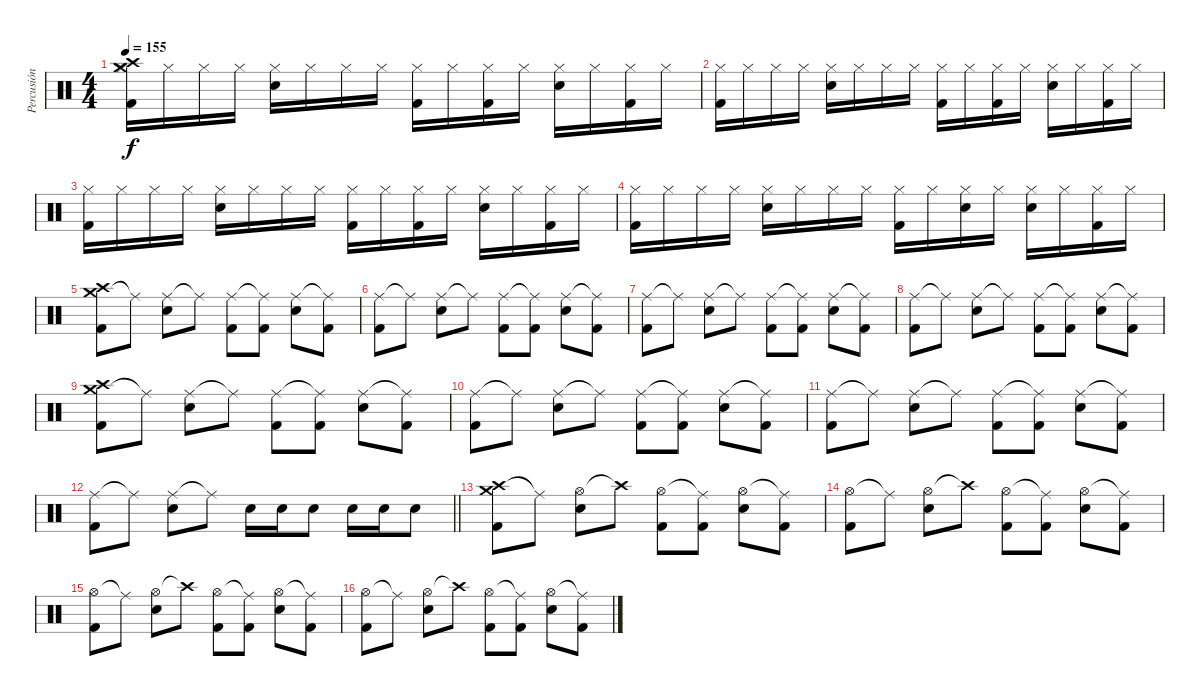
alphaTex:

\track ("Percusión" "Percusión") {instrument percussion}
\staff {score}
\articulation defaults
\ts (4 4)
\tempo 155
\clef neutral
\ks c
("Crash medium (hit)" "Hi-Hat (closed)" "Crash high (hit)" "Kick (hit) 2").16{dy f} "Hi-Hat (closed)".16 "Hi-Hat (closed)".16 "Hi-Hat (closed)".16 ("Hi-Hat (closed)" "Electric Snare (hit)").16 "Hi-Hat (closed)".16 "Hi-Hat (closed)".16 "Hi-Hat (closed)".16 ("Hi-Hat (closed)" "Kick (hit) 2").16 "Hi-Hat (closed)".16 ("Hi-Hat (closed)" "Kick (hit) 2").16 "Hi-Hat (closed)".16 ("Hi-Hat (closed)" "Electric Snare (hit)").16 "Hi-Hat (closed)".16 ("Hi-Hat (closed)" "Kick (hit) 2").16 "Hi-Hat (closed)".16 |
("Hi-Hat (closed)" "Kick (hit) 2").16 "Hi-Hat (closed)".16 "Hi-Hat (closed)".16 "Hi-Hat (closed)".16 ("Hi-Hat (closed)" "Electric Snare (hit)").16 "Hi-Hat (closed)".16 "Hi-Hat (closed)".16 "Hi-Hat (closed)".16 ("Hi-Hat (closed)" "Kick (hit) 2").16 "Hi-Hat (closed)".16 ("Hi-Hat (closed)" "Kick (hit) 2").16 "Hi-Hat (closed)".16 ("Hi-Hat (closed)" "Electric Snare (hit)").16 "Hi-Hat (closed)".16 ("Hi-Hat (closed)" "Kick (hit) 2").16 "Hi-Hat (closed)".16 |
("Hi-Hat (closed)" "Kick (hit) 2").16 "Hi-Hat (closed)".16 "Hi-Hat (closed)".16 "Hi-Hat (closed)".16 ("Hi-Hat (closed)" "Electric Snare (hit)").16 "Hi-Hat (closed)".16 "Hi-Hat (closed)".16 "Hi-Hat (closed)".16 ("Hi-Hat (closed)" "Kick (hit) 2").16 "Hi-Hat (closed)".16 ("Hi-Hat (closed)" "Kick (hit) 2").16 "Hi-Hat (closed)".16 ("Hi-Hat (closed)" "Electric Snare (hit)").16 "Hi-Hat (closed)".16 ("Hi-Hat (closed)" "Kick (hit) 2").16 "Hi-Hat (closed)".16 |
("Hi-Hat (closed)" "Kick (hit) 2").16 "Hi-Hat (closed)".16 "Hi-Hat (closed)".16 "Hi-Hat (closed)".16 ("Hi-Hat (closed)" "Electric Snare (hit)").16 "Hi-Hat (closed)".16 "Hi-Hat (closed)".16 "Hi-Hat (closed)".16 ("Hi-Hat (closed)" "Kick (hit) 2").16 "Hi-Hat (closed)".16 ("Hi-Hat (closed)" "Electric Snare (hit)").16 "Hi-Hat (closed)".16 ("Hi-Hat (closed)" "Electric Snare (hit)").16 "Hi-Hat (closed)".16 ("Hi-Hat (closed)" "Kick (hit) 2").16 "Hi-Hat (closed)".16 |
("Crash medium (hit)" "Crash high (hit)" "Kick (hit) 2").8 "Ride (middle)"{t}.8 ("Ride (middle)" "Electric Snare (hit)").8 "Ride (middle)"{t}.8 ("Ride (middle)" "Kick (hit) 2").8 ("Ride (middle)"{t} "Kick (hit) 2").8 ("Ride (middle)" "Electric Snare (hit)").8 ("Ride (middle)"{t} "Kick (hit) 2").8 |
("Ride (middle)" "Kick (hit) 2").8 "Ride (middle)"{t}.8 ("Ride (middle)" "Electric Snare (hit)").8 "Ride (middle)"{t}.8 ("Ride (middle)" "Kick (hit) 2").8 ("Ride (middle)"{t} "Kick (hit) 2").8 ("Ride (middle)" "Electric Snare (hit)").8 ("Ride (middle)"{t} "Kick (hit) 2").8 |
("Ride (middle)" "Kick (hit) 2").8 "Ride (middle)"{t}.8 ("Ride (middle)" "Electric Snare (hit)").8 "Ride (middle)"{t}.8 ("Ride (middle)" "Kick (hit) 2").8 ("Ride (middle)"{t} "Kick (hit) 2").8 ("Ride (middle)" "Electric Snare (hit)").8 ("Ride (middle)"{t} "Kick (hit) 2").8 |
("Ride (middle)" "Kick (hit) 2").8 "Ride (middle)"{t}.8 ("Ride (middle)" "Electric Snare (hit)").8 "Ride (middle)"{t}.8 ("Ride (middle)" "Kick (hit) 2").8 ("Ride (middle)"{t} "Kick (hit) 2").8 ("Ride (middle)" "Electric Snare (hit)").8 ("Ride (middle)"{t} "Kick (hit) 2").8 |
("Crash medium (hit)" "Crash high (hit)" "Kick (hit) 2").8 "Ride (middle)"{t}.8 ("Ride (middle)" "Electric Snare (hit)").8 "Ride (middle)"{t}.8 ("Ride (middle)" "Kick (hit) 2").8 ("Ride (middle)"{t} "Kick (hit) 2").8 ("Ride (middle)" "Electric Snare (hit)").8 ("Ride (middle)"{t} "Kick (hit) 2").8 |
("Ride (middle)" "Kick (hit) 2").8 "Ride (middle)"{t}.8 ("Ride (middle)" "Electric Snare (hit)").8 "Ride (middle)"{t}.8 ("Ride (middle)" "Kick (hit) 2").8 ("Ride (middle)"{t} "Kick (hit) 2").8 ("Ride (middle)" "Electric Snare (hit)").8 ("Ride (middle)"{t} "Kick (hit) 2").8 |
("Ride (middle)" "Kick (hit) 2").8 "Ride (middle)"{t}.8 ("Ride (middle)" "Electric Snare (hit)").8 "Ride (middle)"{t}.8 ("Ride (middle)" "Kick (hit) 2").8 ("Ride (middle)"{t} "Kick (hit) 2").8 ("Ride (middle)" "Electric Snare (hit)").8 ("Ride (middle)"{t} "Kick (hit) 2").8 |
\barLineRight lightlight
("Ride (middle)" "Kick (hit) 2").8 "Ride (middle)"{t}.8 ("Ride (middle)" "Electric Snare (hit)").8 "Ride (middle)"{t}.8 "Electric Snare (hit)".16 "Electric Snare (hit)".16 "Electric Snare (hit)".8 "Electric Snare (hit)".16 "Electric Snare (hit)".16 "Electric Snare (hit)".8 |
("Crash high (hit)" "Crash medium (hit)" "Kick (hit) 2").8 "Ride (middle)"{t}.8 ("Hi-Hat (open)" "Electric Snare (hit)").8 "Crash high (hit)"{t}.8 ("Hi-Hat (open)" "Kick (hit) 2").8 ("Ride (middle)"{t} "Kick (hit) 2").8 ("Hi-Hat (open)" "Electric Snare (hit)").8 ("Ride (middle)"{t} "Kick (hit) 2").8 |
("Hi-Hat (open)" "Kick (hit) 2").8 "Ride (middle)"{t}.8 ("Hi-Hat (open)" "Electric Snare (hit)").8 "Crash high (hit)"{t}.8 ("Hi-Hat (open)" "Kick (hit) 2").8 ("Ride (middle)"{t} "Kick (hit) 2").8 ("Hi-Hat (open)" "Electric Snare (hit)").8 ("Ride (middle)"{t} "Kick (hit) 2").8 |
("Hi-Hat (open)" "Kick (hit) 2").8 "Ride (middle)"{t}.8 ("Hi-Hat (open)" "Electric Snare (hit)").8 "Crash high (hit)"{t}.8 ("Hi-Hat (open)" "Kick (hit) 2").8 ("Ride (middle)"{t} "Kick (hit) 2").8 ("Hi-Hat (open)" "Electric Snare (hit)").8 ("Ride (middle)"{t} "Kick (hit) 2").8 |
("Hi-Hat (open)" "Kick (hit) 2").8 "Ride (middle)"{t}.8 ("Hi-Hat (open)" "Electric Snare (hit)").8 "Crash high (hit)"{t}.8 ("Hi-Hat (open)" "Kick (hit) 2").8 ("Ride (middle)"{t} "Kick (hit) 2").8 ("Hi-Hat (open)" "Electric Snare (hit)").8 ("Ride (middle)"{t} "Kick (hit) 2").8
